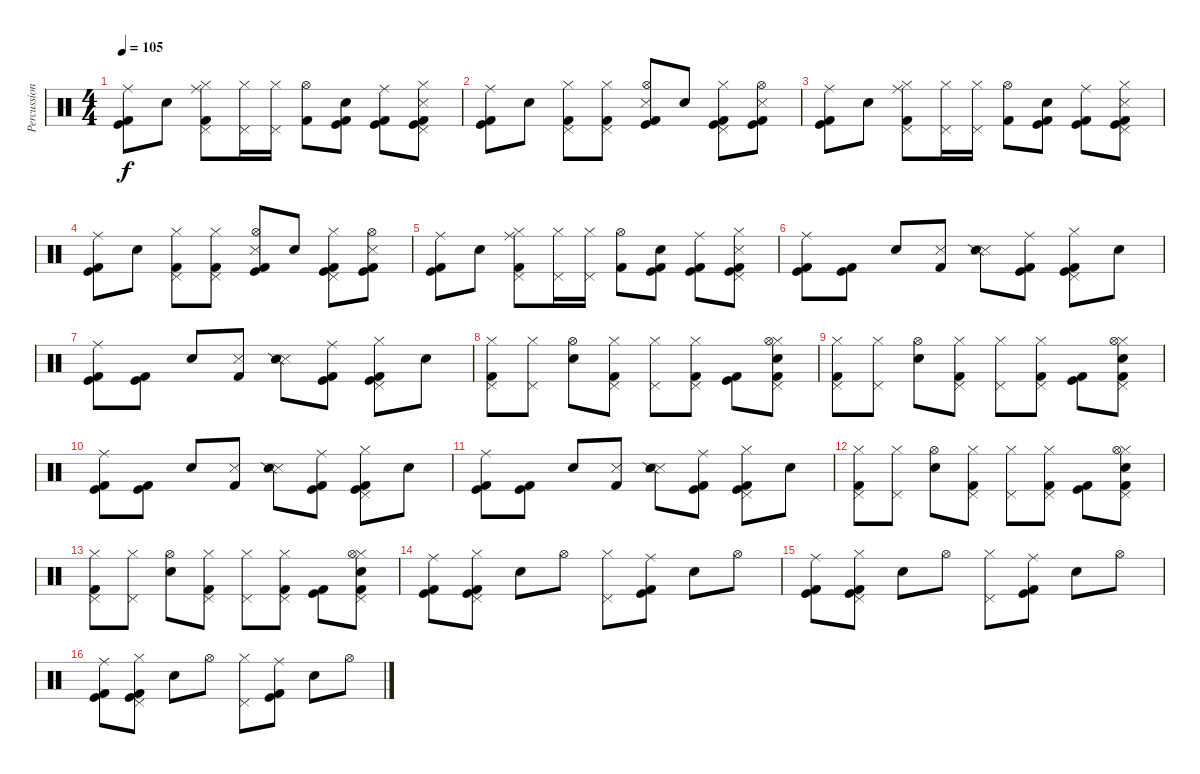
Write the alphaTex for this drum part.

\track ("Percussion" "Percussion") {instrument percussion}
\staff {score}
\articulation defaults
\ts (4 4)
\tempo 105
\clef neutral
\ks c
("Kick (hit)" "Kick (hit) 2" "Ride (middle)").8{dy f volume 16} "Snare (hit) 2".8{volume 16} ("Kick (hit) 2" "Ride (middle)" "Pedal Hi-Hat (hit)" "Hi-Hat (closed)").8{volume 16} ("Pedal Hi-Hat (hit)" "Hi-Hat (closed)").16{volume 16} ("Pedal Hi-Hat (hit)" "Hi-Hat (closed)").16{volume 16} ("Hi-Hat (open)" "Kick (hit) 2").8{volume 16} ("Snare (hit) 2" "Kick (hit) 2" "Kick (hit)").8{volume 16} ("Kick (hit) 2" "Kick (hit)" "Ride (middle)").8{volume 16} ("Kick (hit) 2" "Kick (hit)" "Snare (side stick) 3" "Pedal Hi-Hat (hit)" "Hi-Hat (closed)").8{volume 16} |
("Ride (middle)" "Kick (hit)" "Kick (hit) 2").8{volume 16} "Snare (hit) 2".8{volume 16} ("Hi-Hat (closed)" "Pedal Hi-Hat (hit)" "Kick (hit) 2").8{volume 16} ("Hi-Hat (closed)" "Pedal Hi-Hat (hit)" "Kick (hit) 2").8{volume 16} ("Snare (side stick) 3" "Kick (hit)" "Kick (hit) 2" "Hi-Hat (open)").8{volume 16} "Snare (hit) 2".8{volume 16} ("Hi-Hat (closed)" "Pedal Hi-Hat (hit)" "Kick (hit) 2" "Kick (hit)").8{volume 16} ("Hi-Hat (open)" "Kick (hit) 2" "Kick (hit)" "Snare (side stick) 3").8{volume 16} |
("Kick (hit)" "Kick (hit) 2" "Ride (middle)").8{volume 16} "Snare (hit) 2".8{volume 16} ("Kick (hit) 2" "Ride (middle)" "Pedal Hi-Hat (hit)" "Hi-Hat (closed)").8{volume 16} ("Pedal Hi-Hat (hit)" "Hi-Hat (closed)").16{volume 16} ("Pedal Hi-Hat (hit)" "Hi-Hat (closed)").16{volume 16} ("Hi-Hat (open)" "Kick (hit) 2").8{volume 16} ("Snare (hit) 2" "Kick (hit) 2" "Kick (hit)").8{volume 16} ("Kick (hit) 2" "Kick (hit)" "Ride (middle)").8{volume 16} ("Kick (hit) 2" "Kick (hit)" "Snare (side stick) 3" "Pedal Hi-Hat (hit)" "Hi-Hat (closed)").8{volume 16} |
("Ride (middle)" "Kick (hit)" "Kick (hit) 2").8{volume 16} "Snare (hit) 2".8{volume 16} ("Hi-Hat (closed)" "Pedal Hi-Hat (hit)" "Kick (hit) 2").8{volume 16} ("Hi-Hat (closed)" "Pedal Hi-Hat (hit)" "Kick (hit) 2").8{volume 16} ("Snare (side stick) 3" "Kick (hit)" "Kick (hit) 2" "Hi-Hat (open)").8{volume 16} "Snare (hit) 2".8{volume 16} ("Hi-Hat (closed)" "Pedal Hi-Hat (hit)" "Kick (hit) 2" "Kick (hit)").8{volume 16} ("Hi-Hat (open)" "Kick (hit) 2" "Kick (hit)" "Snare (side stick) 3").8{volume 16} |
("Kick (hit)" "Kick (hit) 2" "Ride (middle)").8{volume 16} "Snare (hit) 2".8{volume 16} ("Kick (hit) 2" "Ride (middle)" "Pedal Hi-Hat (hit)" "Hi-Hat (closed)").8{volume 16} ("Pedal Hi-Hat (hit)" "Hi-Hat (closed)").16{volume 16} ("Pedal Hi-Hat (hit)" "Hi-Hat (closed)").16{volume 16} ("Hi-Hat (open)" "Kick (hit) 2").8{volume 16} ("Snare (hit) 2" "Kick (hit) 2" "Kick (hit)").8{volume 16} ("Kick (hit) 2" "Kick (hit)" "Ride (middle)").8{volume 16} ("Kick (hit) 2" "Kick (hit)" "Snare (side stick) 3" "Pedal Hi-Hat (hit)" "Hi-Hat (closed)").8{volume 16} |
("Kick (hit) 2" "Kick (hit)" "Ride (middle)").8{volume 16} ("Kick (hit) 2" "Kick (hit)").8{volume 16} "Snare (hit) 2".8{volume 16} ("Kick (hit) 2" "Snare (side stick) 3").8{volume 16} ("Snare (side stick) 3" "Snare (side stick) 2").8{volume 16} ("Kick (hit) 2" "Kick (hit)" "Ride (middle)").8{volume 16} ("Hi-Hat (closed)" "Kick (hit)" "Kick (hit) 2" "Pedal Hi-Hat (hit)").8{volume 16} "Snare (hit) 2".8{volume 16} |
("Kick (hit) 2" "Kick (hit)" "Ride (middle)").8{volume 16} ("Kick (hit) 2" "Kick (hit)").8{volume 16} "Snare (hit) 2".8{volume 16} ("Kick (hit) 2" "Snare (side stick) 3").8{volume 16} ("Snare (side stick) 3" "Snare (side stick) 2").8{volume 16} ("Kick (hit) 2" "Kick (hit)" "Ride (middle)").8{volume 16} ("Hi-Hat (closed)" "Kick (hit)" "Kick (hit) 2" "Pedal Hi-Hat (hit)").8{volume 16} "Snare (hit) 2".8{volume 16} |
("Kick (hit) 2" "Hi-Hat (closed)" "Pedal Hi-Hat (hit)").8{volume 16} ("Pedal Hi-Hat (hit)" "Hi-Hat (closed)").8{volume 16} ("Hi-Hat (open)" "Snare (hit) 2").8{volume 16} ("Kick (hit) 2" "Pedal Hi-Hat (hit)" "Hi-Hat (closed)").8{volume 16} ("Pedal Hi-Hat (hit)" "Hi-Hat (closed)").8{volume 16} ("Kick (hit) 2" "Pedal Hi-Hat (hit)" "Hi-Hat (closed)").8{volume 16} ("Kick (hit) 2" "Kick (hit)").8{volume 16} ("Snare (hit) 2" "Kick (hit) 2" "Pedal Hi-Hat (hit)" "Hi-Hat (closed)" "Hi-Hat (open)").8{volume 16} |
("Kick (hit) 2" "Hi-Hat (closed)" "Pedal Hi-Hat (hit)").8{volume 16} ("Pedal Hi-Hat (hit)" "Hi-Hat (closed)").8{volume 16} ("Hi-Hat (open)" "Snare (hit) 2").8{volume 16} ("Kick (hit) 2" "Pedal Hi-Hat (hit)" "Hi-Hat (closed)").8{volume 16} ("Pedal Hi-Hat (hit)" "Hi-Hat (closed)").8{volume 16} ("Kick (hit) 2" "Pedal Hi-Hat (hit)" "Hi-Hat (closed)").8{volume 16} ("Kick (hit) 2" "Kick (hit)").8{volume 16} ("Snare (hit) 2" "Kick (hit) 2" "Pedal Hi-Hat (hit)" "Hi-Hat (closed)" "Hi-Hat (open)").8{volume 16} |
("Kick (hit) 2" "Kick (hit)" "Ride (middle)").8{volume 16} ("Kick (hit) 2" "Kick (hit)").8{volume 16} "Snare (hit) 2".8{volume 16} ("Kick (hit) 2" "Snare (side stick) 3").8{volume 16} ("Snare (side stick) 3" "Snare (side stick) 2").8{volume 16} ("Kick (hit) 2" "Kick (hit)" "Ride (middle)").8{volume 16} ("Hi-Hat (closed)" "Kick (hit)" "Kick (hit) 2" "Pedal Hi-Hat (hit)").8{volume 16} "Snare (hit) 2".8{volume 16} |
("Kick (hit) 2" "Kick (hit)" "Ride (middle)").8{volume 16} ("Kick (hit) 2" "Kick (hit)").8{volume 16} "Snare (hit) 2".8{volume 16} ("Kick (hit) 2" "Snare (side stick) 3").8{volume 16} ("Snare (side stick) 3" "Snare (side stick) 2").8{volume 16} ("Kick (hit) 2" "Kick (hit)" "Ride (middle)").8{volume 16} ("Hi-Hat (closed)" "Kick (hit)" "Kick (hit) 2" "Pedal Hi-Hat (hit)").8{volume 16} "Snare (hit) 2".8{volume 16} |
("Kick (hit) 2" "Hi-Hat (closed)" "Pedal Hi-Hat (hit)").8{volume 16} ("Pedal Hi-Hat (hit)" "Hi-Hat (closed)").8{volume 16} ("Hi-Hat (open)" "Snare (hit) 2").8{volume 16} ("Kick (hit) 2" "Pedal Hi-Hat (hit)" "Hi-Hat (closed)").8{volume 16} ("Pedal Hi-Hat (hit)" "Hi-Hat (closed)").8{volume 16} ("Kick (hit) 2" "Pedal Hi-Hat (hit)" "Hi-Hat (closed)").8{volume 16} ("Kick (hit) 2" "Kick (hit)").8{volume 16} ("Snare (hit) 2" "Kick (hit) 2" "Pedal Hi-Hat (hit)" "Hi-Hat (closed)" "Hi-Hat (open)").8{volume 16} |
("Kick (hit) 2" "Hi-Hat (closed)" "Pedal Hi-Hat (hit)").8{volume 16} ("Pedal Hi-Hat (hit)" "Hi-Hat (closed)").8{volume 16} ("Hi-Hat (open)" "Snare (hit) 2").8{volume 16} ("Kick (hit) 2" "Pedal Hi-Hat (hit)" "Hi-Hat (closed)").8{volume 16} ("Pedal Hi-Hat (hit)" "Hi-Hat (closed)").8{volume 16} ("Kick (hit) 2" "Pedal Hi-Hat (hit)" "Hi-Hat (closed)").8{volume 16} ("Kick (hit) 2" "Kick (hit)").8{volume 16} ("Snare (hit) 2" "Kick (hit) 2" "Pedal Hi-Hat (hit)" "Hi-Hat (closed)" "Hi-Hat (open)").8{volume 16} |
("Ride (middle)" "Kick (hit)" "Kick (hit) 2").8 ("Kick (hit) 2" "Kick (hit)" "Pedal Hi-Hat (hit)" "Hi-Hat (closed)").8 "Snare (hit) 2".8 "Hi-Hat (open)".8 ("Pedal Hi-Hat (hit)" "Hi-Hat (closed)").8 ("Kick (hit) 2" "Kick (hit)" "Ride (middle)").8 "Snare (hit) 2".8 "Hi-Hat (open)".8 |
("Ride (middle)" "Kick (hit)" "Kick (hit) 2").8 ("Kick (hit) 2" "Kick (hit)" "Pedal Hi-Hat (hit)" "Hi-Hat (closed)").8 "Snare (hit) 2".8 "Hi-Hat (open)".8 ("Pedal Hi-Hat (hit)" "Hi-Hat (closed)").8 ("Kick (hit) 2" "Kick (hit)" "Ride (middle)").8 "Snare (hit) 2".8 "Hi-Hat (open)".8 |
("Ride (middle)" "Kick (hit)" "Kick (hit) 2").8 ("Kick (hit) 2" "Kick (hit)" "Pedal Hi-Hat (hit)" "Hi-Hat (closed)").8 "Snare (hit) 2".8 "Hi-Hat (open)".8 ("Pedal Hi-Hat (hit)" "Hi-Hat (closed)").8 ("Kick (hit) 2" "Kick (hit)" "Ride (middle)").8 "Snare (hit) 2".8 "Hi-Hat (open)".8
